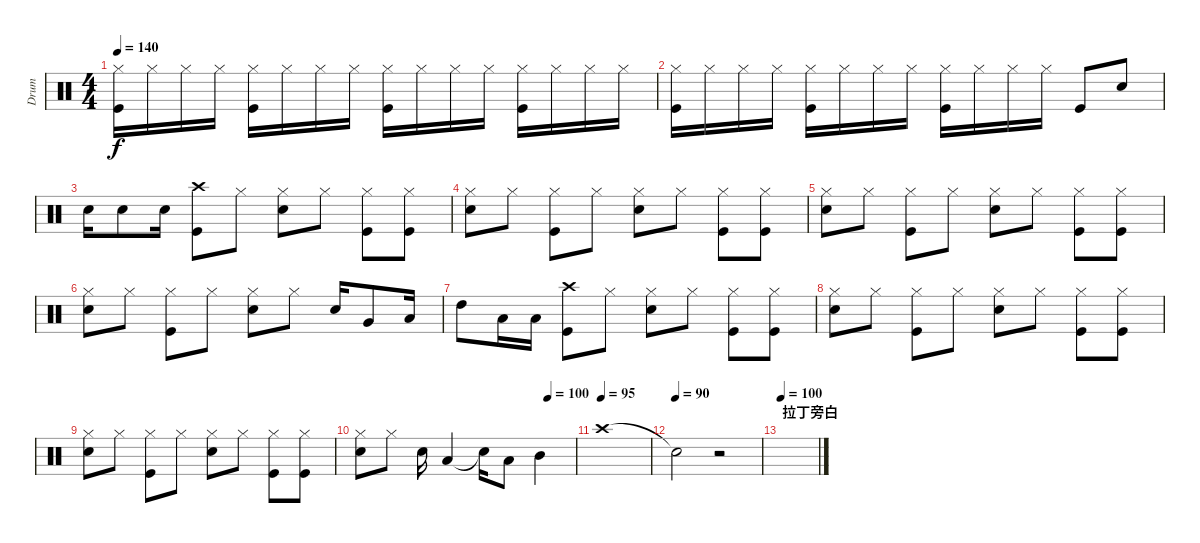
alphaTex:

\track ("Drum" "Drum") {instrument percussion}
\staff {score}
\articulation defaults
\ts (4 4)
\tempo 140
\clef neutral
\ks c
("Hi-Hat (closed)" "Kick (hit)").16{dy f} "Hi-Hat (closed)".16 "Hi-Hat (closed)".16 "Hi-Hat (closed)".16 ("Hi-Hat (closed)" "Kick (hit)").16 "Hi-Hat (closed)".16 "Hi-Hat (closed)".16 "Hi-Hat (closed)".16 ("Hi-Hat (closed)" "Kick (hit)").16 "Hi-Hat (closed)".16 "Hi-Hat (closed)".16 "Hi-Hat (closed)".16 ("Hi-Hat (closed)" "Kick (hit)").16 "Hi-Hat (closed)".16 "Hi-Hat (closed)".16 "Hi-Hat (closed)".16 |
("Hi-Hat (closed)" "Kick (hit)").16 "Hi-Hat (closed)".16 "Hi-Hat (closed)".16 "Hi-Hat (closed)".16 ("Hi-Hat (closed)" "Kick (hit)").16 "Hi-Hat (closed)".16 "Hi-Hat (closed)".16 "Hi-Hat (closed)".16 ("Hi-Hat (closed)" "Kick (hit)").16 "Hi-Hat (closed)".16 "Hi-Hat (closed)".16 "Hi-Hat (closed)".16 "Kick (hit)".8 "Snare (hit) 2".8 |
"Snare (hit) 2".16 "Snare (hit) 2".8 "Snare (hit) 2".16 ("Crash high (hit)" "Kick (hit)").8 "Hi-Hat (closed)".8 ("Hi-Hat (closed)" "Snare (hit) 2").8 "Hi-Hat (closed)".8 ("Hi-Hat (closed)" "Kick (hit)").8 ("Hi-Hat (closed)" "Kick (hit)").8 |
("Hi-Hat (closed)" "Snare (hit) 2").8 "Hi-Hat (closed)".8 ("Hi-Hat (closed)" "Kick (hit)").8 "Hi-Hat (closed)".8 ("Hi-Hat (closed)" "Snare (hit) 2").8 "Hi-Hat (closed)".8 ("Hi-Hat (closed)" "Kick (hit)").8 ("Hi-Hat (closed)" "Kick (hit)").8 |
("Hi-Hat (closed)" "Snare (hit) 2").8 "Hi-Hat (closed)".8 ("Hi-Hat (closed)" "Kick (hit)").8 "Hi-Hat (closed)".8 ("Hi-Hat (closed)" "Snare (hit) 2").8 "Hi-Hat (closed)".8 ("Hi-Hat (closed)" "Kick (hit)").8 ("Hi-Hat (closed)" "Kick (hit)").8 |
("Hi-Hat (closed)" "Snare (hit) 2").8 "Hi-Hat (closed)".8 ("Hi-Hat (closed)" "Kick (hit)").8 "Hi-Hat (closed)".8 ("Hi-Hat (closed)" "Snare (hit) 2").8 "Hi-Hat (closed)".8 "Snare (hit) 2".16 "Very Low Tom (hit)".8 "Low Floor Tom (hit)".16 |
"High Tom (hit)".8 "Low Tom (hit)".16 "Low Floor Tom (hit)".16 ("Crash high (hit)" "Kick (hit)").8 "Hi-Hat (closed)".8 ("Hi-Hat (closed)" "Snare (hit) 2").8 "Hi-Hat (closed)".8 ("Hi-Hat (closed)" "Kick (hit)").8 ("Hi-Hat (closed)" "Kick (hit)").8 |
("Hi-Hat (closed)" "Snare (hit) 2").8 "Hi-Hat (closed)".8 ("Hi-Hat (closed)" "Kick (hit)").8 "Hi-Hat (closed)".8 ("Hi-Hat (closed)" "Snare (hit) 2").8 "Hi-Hat (closed)".8 ("Hi-Hat (closed)" "Kick (hit)").8 ("Hi-Hat (closed)" "Kick (hit)").8 |
("Hi-Hat (closed)" "Snare (hit) 2").8 "Hi-Hat (closed)".8 ("Hi-Hat (closed)" "Kick (hit)").8 "Hi-Hat (closed)".8 ("Hi-Hat (closed)" "Snare (hit) 2").8 "Hi-Hat (closed)".8 ("Hi-Hat (closed)" "Kick (hit)").8 ("Hi-Hat (closed)" "Kick (hit)").8 |
\tempo (100 0.875)
("Hi-Hat (closed)" "Snare (hit) 2").8 "Hi-Hat (closed)".8 "Snare (hit) 2".16 "Low Tom (hit)".4 "Snare (hit)"{t}.16 "Low Floor Tom (hit)".8 "Mid Tom (hit)".4 |
\tempo (95)
"Crash high (hit)".1 |
\tempo (90)
"Snare (hit)"{t}.2 r.2 |
\section ("" "拉丁旁白")
\tempo 100
